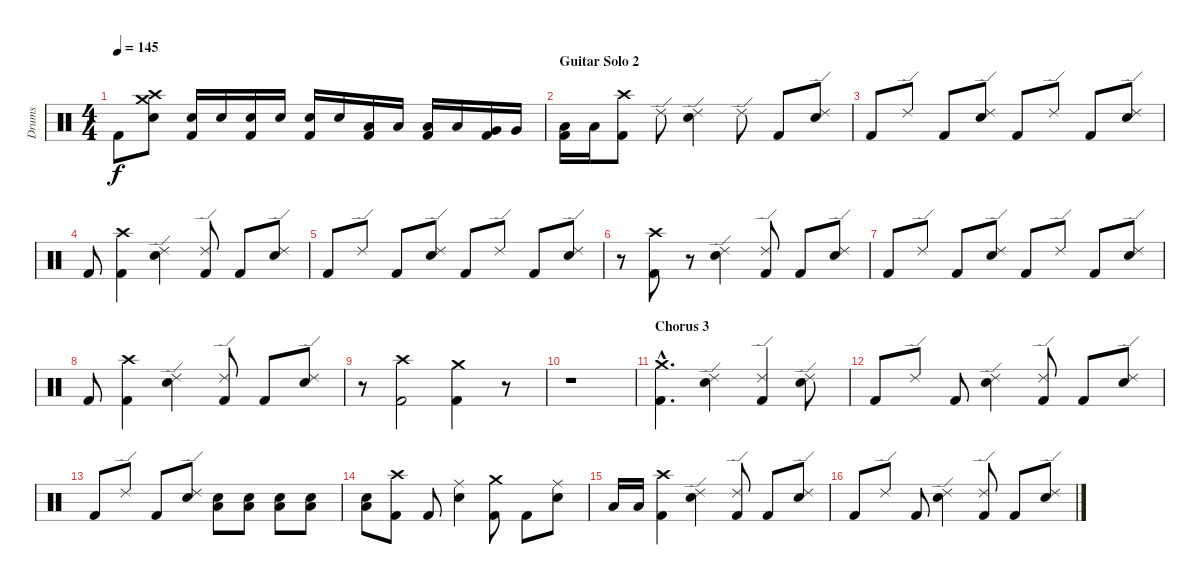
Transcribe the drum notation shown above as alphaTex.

\track ("Drums" "Drums") {instrument percussion}
\staff {score}
\articulation defaults
\ts (4 4)
\tempo 145
\clef neutral
\ks c "Kick (hit) 2".8{dy f}
("Crash high (hit)" "Crash medium (hit)" "Snare (hit) 2").8 ("Snare (hit) 2" "Kick (hit) 2").16 "Snare (hit) 2".16 ("Snare (hit) 2" "Kick (hit) 2").16 "Snare (hit) 2".16 ("Snare (hit) 2" "Kick (hit) 2").16 "Snare (hit) 2".16 ("Low Tom (hit)" "Kick (hit) 2").16 "Low Tom (hit)".16 ("Low Tom (hit)" "Kick (hit) 2").16 "Low Tom (hit)".16 ("Very Low Tom (hit)" "Kick (hit) 2").16 "Very Low Tom (hit)".16 |
\section ("" "Guitar Solo 2")
("Low Floor Tom (hit)" "Kick (hit) 2").16 "Low Floor Tom (hit)".16 ("Crash high (hit)" "Kick (hit) 2").8 "Ride (edge) 2".8 ("Ride (edge) 2" "Snare (hit) 2").4 "Ride (edge) 2".8 "Kick (hit) 2".8 ("Ride (edge) 2" "Snare (hit) 2").8 |
"Kick (hit) 2".8 "Ride (edge) 2".8 "Kick (hit) 2".8 ("Ride (edge) 2" "Snare (hit) 2").8 "Kick (hit) 2".8 "Ride (edge) 2".8 "Kick (hit) 2".8 ("Ride (edge) 2" "Snare (hit) 2").8 |
"Kick (hit) 2".8 ("Crash high (hit)" "Kick (hit) 2").4 ("Ride (edge) 2" "Snare (hit) 2").4 ("Ride (edge) 2" "Kick (hit) 2").8 "Kick (hit) 2".8 ("Ride (edge) 2" "Snare (hit) 2").8 |
"Kick (hit) 2".8 "Ride (edge) 2".8 "Kick (hit) 2".8 ("Ride (edge) 2" "Snare (hit) 2").8 "Kick (hit) 2".8 "Ride (edge) 2".8 "Kick (hit) 2".8 ("Ride (edge) 2" "Snare (hit) 2").8 |
r.8 ("Crash high (hit)" "Kick (hit) 2").8 r.8 ("Ride (edge) 2" "Snare (hit) 2").4 ("Ride (edge) 2" "Kick (hit) 2").8 "Kick (hit) 2".8 ("Ride (edge) 2" "Snare (hit) 2").8 |
"Kick (hit) 2".8 "Ride (edge) 2".8 "Kick (hit) 2".8 ("Ride (edge) 2" "Snare (hit) 2").8 "Kick (hit) 2".8 "Ride (edge) 2".8 "Kick (hit) 2".8 ("Ride (edge) 2" "Snare (hit) 2").8 |
"Kick (hit) 2".8 ("Crash high (hit)" "Kick (hit) 2").4 ("Ride (edge) 2" "Snare (hit) 2").4 ("Ride (edge) 2" "Kick (hit) 2").8 "Kick (hit) 2".8 ("Ride (edge) 2" "Snare (hit) 2").8 |
r.8 ("Crash high (hit)" "Kick (hit) 2").2 ("Crash medium (hit)" "Kick (hit) 2").4 r.8 |
r.1 |
\section ("" "Chorus 3")
("Crash medium (hit)"{hac} "Kick (hit) 2"{hac}).4{d} ("Ride (edge) 2" "Snare (hit) 2").4 ("Ride (edge) 2" "Kick (hit) 2").4 ("Ride (edge) 2" "Snare (hit) 2").8 |
"Kick (hit) 2".8 "Ride (edge) 2".8 "Kick (hit) 2".8 ("Ride (edge) 2" "Snare (hit) 2").4 ("Ride (edge) 2" "Kick (hit) 2").8 "Kick (hit) 2".8 ("Ride (edge) 2" "Snare (hit) 2").8 |
"Kick (hit) 2".8 "Ride (edge) 2".8 "Kick (hit) 2".8 ("Ride (edge) 2" "Snare (hit) 2").8 ("Low Floor Tom (hit)" "Snare (hit) 2").8 ("Low Floor Tom (hit)" "Snare (hit) 2").8 ("Low Floor Tom (hit)" "Snare (hit) 2").8 ("Low Floor Tom (hit)" "Snare (hit) 2").8 |
("Low Floor Tom (hit)" "Snare (hit) 2").8 ("Crash high (hit)" "Kick (hit) 2").8 "Kick (hit) 2".8 ("Ride (middle)" "Snare (hit) 2").4 ("Crash medium (hit)" "Kick (hit) 2").8 "Kick (hit) 2".8 ("Ride (middle)" "Snare (hit) 2").8 |
"Low Floor Tom (hit)".16 "Low Floor Tom (hit)".16 ("Crash high (hit)" "Kick (hit) 2").4 ("Ride (edge) 2" "Snare (hit) 2").4 ("Ride (edge) 2" "Kick (hit) 2").8 "Kick (hit) 2".8 ("Ride (edge) 2" "Snare (hit) 2").8 |
"Kick (hit) 2".8 "Ride (edge) 2".8 "Kick (hit) 2".8 ("Ride (edge) 2" "Snare (hit) 2").4 ("Ride (edge) 2" "Kick (hit) 2").8 "Kick (hit) 2".8 ("Ride (edge) 2" "Snare (hit) 2").8
